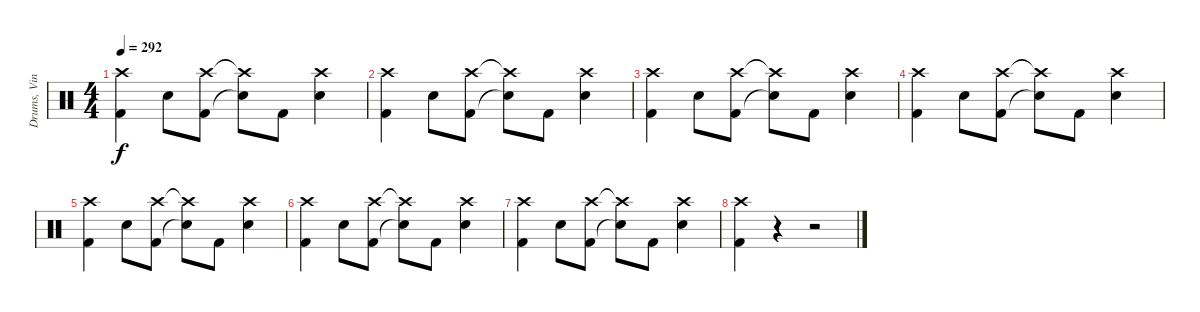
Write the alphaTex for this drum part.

\track ("Drums, Vinnie" "Drums, Vin") {instrument percussion}
\staff {score}
\articulation defaults
\ts (4 4)
\tempo 292
\clef neutral
\ks c
("Crash high (hit)" "Kick (hit) 2").4{dy f} "Electric Snare (hit)".8 ("Crash high (hit)" "Kick (hit) 2").8 ("Crash high (hit)"{t} "Snare (hit)"{t}).8 "Kick (hit) 2".8 ("Crash high (hit)" "Electric Snare (hit)").4 |
("Crash high (hit)" "Kick (hit) 2").4 "Electric Snare (hit)".8 ("Crash high (hit)" "Kick (hit) 2").8 ("Crash high (hit)"{t} "Snare (hit)"{t}).8 "Kick (hit) 2".8 ("Crash high (hit)" "Electric Snare (hit)").4 |
("Crash high (hit)" "Kick (hit) 2").4 "Electric Snare (hit)".8 ("Crash high (hit)" "Kick (hit) 2").8 ("Crash high (hit)"{t} "Snare (hit)"{t}).8 "Kick (hit) 2".8 ("Crash high (hit)" "Electric Snare (hit)").4 |
("Crash high (hit)" "Kick (hit) 2").4 "Electric Snare (hit)".8 ("Crash high (hit)" "Kick (hit) 2").8 ("Crash high (hit)"{t} "Snare (hit)"{t}).8 "Kick (hit) 2".8 ("Crash high (hit)" "Electric Snare (hit)").4 |
("Crash high (hit)" "Kick (hit) 2").4 "Electric Snare (hit)".8 ("Crash high (hit)" "Kick (hit) 2").8 ("Crash high (hit)"{t} "Snare (hit)"{t}).8 "Kick (hit) 2".8 ("Crash high (hit)" "Electric Snare (hit)").4 |
("Crash high (hit)" "Kick (hit) 2").4 "Electric Snare (hit)".8 ("Crash high (hit)" "Kick (hit) 2").8 ("Crash high (hit)"{t} "Snare (hit)"{t}).8 "Kick (hit) 2".8 ("Crash high (hit)" "Electric Snare (hit)").4 |
("Crash high (hit)" "Kick (hit) 2").4 "Electric Snare (hit)".8 ("Crash high (hit)" "Kick (hit) 2").8 ("Crash high (hit)"{t} "Snare (hit)"{t}).8 "Kick (hit) 2".8 ("Crash high (hit)" "Electric Snare (hit)").4 |
("Crash high (hit)" "Kick (hit) 2").4 r.4 r.2
